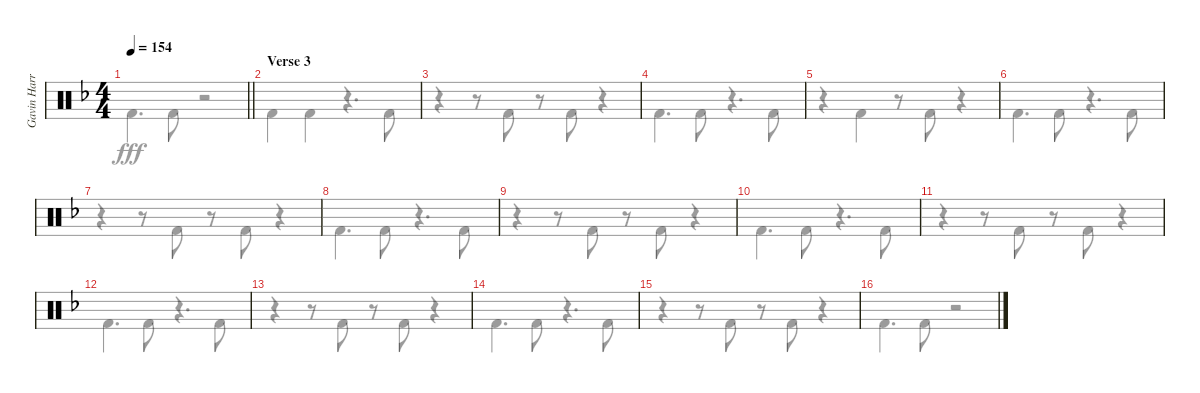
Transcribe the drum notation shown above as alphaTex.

\track ("Gavin Harrison Bass Pedal" "Gavin Harr") {instrument percussion}
\staff {score}
\articulation defaults
\voice
\ts (4 4)
\tempo 154
\clef neutral
\barLineRight lightlight
\ks dminor
|
\section ("" "Verse 3")
|
|
|
|
|
|
|
|
|
|
|
|
|
|
\voice
\clef neutral
\barLineRight lightlight
\ks dminor "Kick (hit) 2".4{d dy fff} "Kick (hit) 2".8
r.2 |
"Kick (hit) 2".4 "Kick (hit) 2".4 r.4{d} "Kick (hit) 2".8 |
r.4 r.8 "Kick (hit) 2".8 r.8 "Kick (hit) 2".8 r.4 |
"Kick (hit) 2".4{d} "Kick (hit) 2".8 r.4{d} "Kick (hit) 2".8 |
r.4 "Kick (hit) 2".4 r.8 "Kick (hit) 2".8 r.4 |
"Kick (hit) 2".4{d} "Kick (hit) 2".8 r.4{d} "Kick (hit) 2".8 |
r.4 r.8 "Kick (hit) 2".8 r.8 "Kick (hit) 2".8 r.4 |
"Kick (hit) 2".4{d} "Kick (hit) 2".8 r.4{d} "Kick (hit) 2".8 |
r.4 r.8 "Kick (hit) 2".8 r.8 "Kick (hit) 2".8 r.4 |
"Kick (hit) 2".4{d} "Kick (hit) 2".8 r.4{d} "Kick (hit) 2".8 |
r.4 r.8 "Kick (hit) 2".8 r.8 "Kick (hit) 2".8 r.4 |
"Kick (hit) 2".4{d} "Kick (hit) 2".8 r.4{d} "Kick (hit) 2".8 |
r.4 r.8 "Kick (hit) 2".8 r.8 "Kick (hit) 2".8 r.4 |
"Kick (hit) 2".4{d} "Kick (hit) 2".8 r.4{d} "Kick (hit) 2".8 |
r.4 r.8 "Kick (hit) 2".8 r.8 "Kick (hit) 2".8 r.4 |
"Kick (hit) 2".4{d} "Kick (hit) 2".8 r.2
